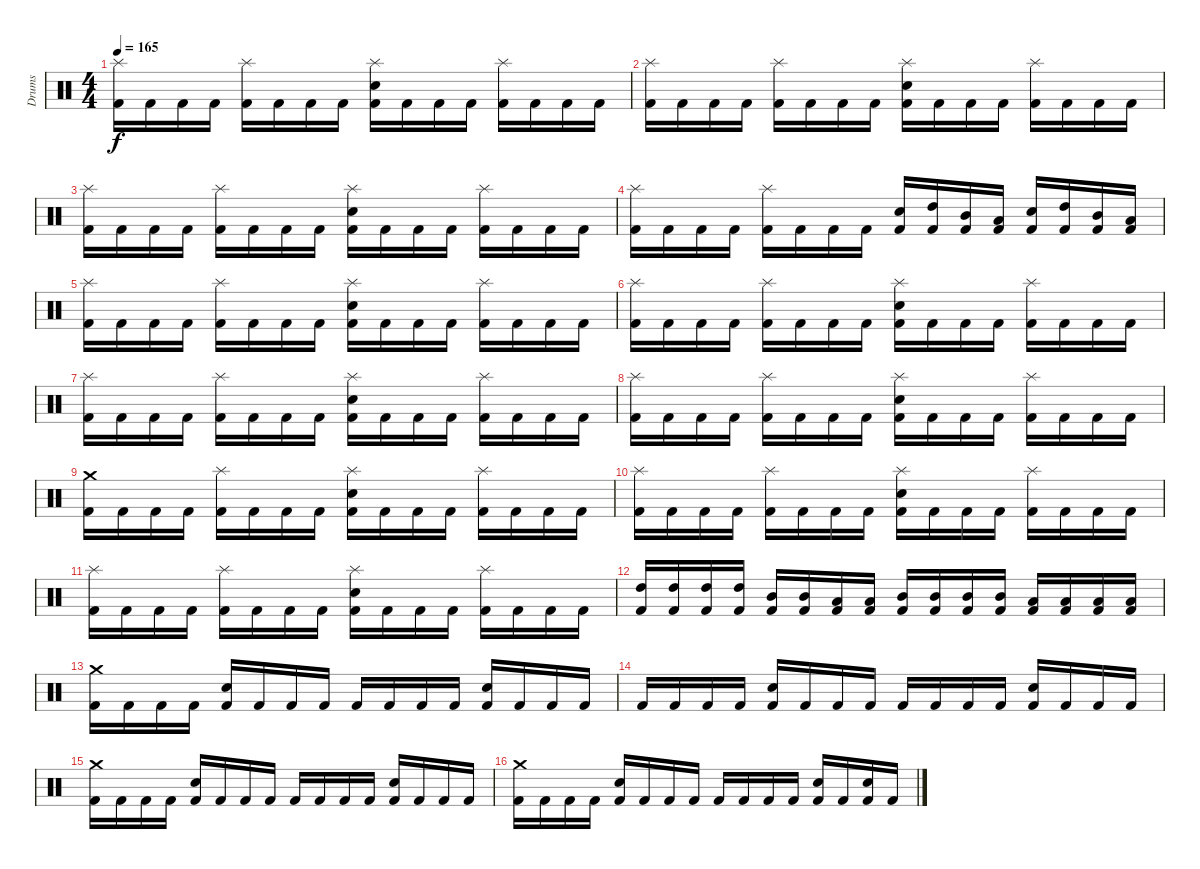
\track ("Drums" "Drums") {instrument percussion}
\staff {score}
\articulation defaults
\ts (4 4)
\tempo 165
\clef neutral
\ks c
("Splash (hit)" "Kick (hit) 2").16{dy f} "Kick (hit) 2".16 "Kick (hit) 2".16 "Kick (hit) 2".16 ("Splash (hit)" "Kick (hit) 2").16 "Kick (hit) 2".16 "Kick (hit) 2".16 "Kick (hit) 2".16 ("Splash (hit)" "Snare (hit) 2" "Kick (hit) 2").16 "Kick (hit) 2".16 "Kick (hit) 2".16 "Kick (hit) 2".16 ("Splash (hit)" "Kick (hit) 2").16 "Kick (hit) 2".16 "Kick (hit) 2".16 "Kick (hit) 2".16 |
("Splash (hit)" "Kick (hit) 2").16 "Kick (hit) 2".16 "Kick (hit) 2".16 "Kick (hit) 2".16 ("Splash (hit)" "Kick (hit) 2").16 "Kick (hit) 2".16 "Kick (hit) 2".16 "Kick (hit) 2".16 ("Splash (hit)" "Snare (hit) 2" "Kick (hit) 2").16 "Kick (hit) 2".16 "Kick (hit) 2".16 "Kick (hit) 2".16 ("Splash (hit)" "Kick (hit) 2").16 "Kick (hit) 2".16 "Kick (hit) 2".16 "Kick (hit) 2".16 |
("Splash (hit)" "Kick (hit) 2").16 "Kick (hit) 2".16 "Kick (hit) 2".16 "Kick (hit) 2".16 ("Splash (hit)" "Kick (hit) 2").16 "Kick (hit) 2".16 "Kick (hit) 2".16 "Kick (hit) 2".16 ("Splash (hit)" "Snare (hit) 2" "Kick (hit) 2").16 "Kick (hit) 2".16 "Kick (hit) 2".16 "Kick (hit) 2".16 ("Splash (hit)" "Kick (hit) 2").16 "Kick (hit) 2".16 "Kick (hit) 2".16 "Kick (hit) 2".16 |
("Splash (hit)" "Kick (hit) 2").16 "Kick (hit) 2".16 "Kick (hit) 2".16 "Kick (hit) 2".16 ("Splash (hit)" "Kick (hit) 2").16 "Kick (hit) 2".16 "Kick (hit) 2".16 "Kick (hit) 2".16 ("Snare (hit) 2" "Kick (hit) 2").16 ("High Tom (hit)" "Kick (hit) 2").16 ("Mid Tom (hit)" "Kick (hit) 2").16 ("Low Tom (hit)" "Kick (hit) 2").16 ("Snare (hit) 2" "Kick (hit) 2").16 ("High Tom (hit)" "Kick (hit) 2").16 ("Mid Tom (hit)" "Kick (hit) 2").16 ("Low Tom (hit)" "Kick (hit) 2").16 |
("Splash (hit)" "Kick (hit) 2").16 "Kick (hit) 2".16 "Kick (hit) 2".16 "Kick (hit) 2".16 ("Splash (hit)" "Kick (hit) 2").16 "Kick (hit) 2".16 "Kick (hit) 2".16 "Kick (hit) 2".16 ("Splash (hit)" "Snare (hit) 2" "Kick (hit) 2").16 "Kick (hit) 2".16 "Kick (hit) 2".16 "Kick (hit) 2".16 ("Splash (hit)" "Kick (hit) 2").16 "Kick (hit) 2".16 "Kick (hit) 2".16 "Kick (hit) 2".16 |
("Splash (hit)" "Kick (hit) 2").16 "Kick (hit) 2".16 "Kick (hit) 2".16 "Kick (hit) 2".16 ("Splash (hit)" "Kick (hit) 2").16 "Kick (hit) 2".16 "Kick (hit) 2".16 "Kick (hit) 2".16 ("Splash (hit)" "Snare (hit) 2" "Kick (hit) 2").16 "Kick (hit) 2".16 "Kick (hit) 2".16 "Kick (hit) 2".16 ("Splash (hit)" "Kick (hit) 2").16 "Kick (hit) 2".16 "Kick (hit) 2".16 "Kick (hit) 2".16 |
("Splash (hit)" "Kick (hit) 2").16 "Kick (hit) 2".16 "Kick (hit) 2".16 "Kick (hit) 2".16 ("Splash (hit)" "Kick (hit) 2").16 "Kick (hit) 2".16 "Kick (hit) 2".16 "Kick (hit) 2".16 ("Splash (hit)" "Snare (hit) 2" "Kick (hit) 2").16 "Kick (hit) 2".16 "Kick (hit) 2".16 "Kick (hit) 2".16 ("Splash (hit)" "Kick (hit) 2").16 "Kick (hit) 2".16 "Kick (hit) 2".16 "Kick (hit) 2".16 |
("Splash (hit)" "Kick (hit) 2").16 "Kick (hit) 2".16 "Kick (hit) 2".16 "Kick (hit) 2".16 ("Splash (hit)" "Kick (hit) 2").16 "Kick (hit) 2".16 "Kick (hit) 2".16 "Kick (hit) 2".16 ("Splash (hit)" "Snare (hit) 2" "Kick (hit) 2").16 "Kick (hit) 2".16 "Kick (hit) 2".16 "Kick (hit) 2".16 ("Splash (hit)" "Kick (hit) 2").16 "Kick (hit) 2".16 "Kick (hit) 2".16 "Kick (hit) 2".16 |
("Crash medium (hit)" "Kick (hit) 2").16 "Kick (hit) 2".16 "Kick (hit) 2".16 "Kick (hit) 2".16 ("Splash (hit)" "Kick (hit) 2").16 "Kick (hit) 2".16 "Kick (hit) 2".16 "Kick (hit) 2".16 ("Splash (hit)" "Snare (hit) 2" "Kick (hit) 2").16 "Kick (hit) 2".16 "Kick (hit) 2".16 "Kick (hit) 2".16 ("Splash (hit)" "Kick (hit) 2").16 "Kick (hit) 2".16 "Kick (hit) 2".16 "Kick (hit) 2".16 |
("Splash (hit)" "Kick (hit) 2").16 "Kick (hit) 2".16 "Kick (hit) 2".16 "Kick (hit) 2".16 ("Splash (hit)" "Kick (hit) 2").16 "Kick (hit) 2".16 "Kick (hit) 2".16 "Kick (hit) 2".16 ("Splash (hit)" "Snare (hit) 2" "Kick (hit) 2").16 "Kick (hit) 2".16 "Kick (hit) 2".16 "Kick (hit) 2".16 ("Splash (hit)" "Kick (hit) 2").16 "Kick (hit) 2".16 "Kick (hit) 2".16 "Kick (hit) 2".16 |
("Splash (hit)" "Kick (hit) 2").16 "Kick (hit) 2".16 "Kick (hit) 2".16 "Kick (hit) 2".16 ("Splash (hit)" "Kick (hit) 2").16 "Kick (hit) 2".16 "Kick (hit) 2".16 "Kick (hit) 2".16 ("Splash (hit)" "Snare (hit) 2" "Kick (hit) 2").16 "Kick (hit) 2".16 "Kick (hit) 2".16 "Kick (hit) 2".16 ("Splash (hit)" "Kick (hit) 2").16 "Kick (hit) 2".16 "Kick (hit) 2".16 "Kick (hit) 2".16 |
("High Tom (hit)" "Kick (hit) 2").16 ("High Tom (hit)" "Kick (hit) 2").16 ("High Tom (hit)" "Kick (hit) 2").16 ("High Tom (hit)" "Kick (hit) 2").16 ("Mid Tom (hit)" "Kick (hit) 2").16 ("Mid Tom (hit)" "Kick (hit) 2").16 ("Low Tom (hit)" "Kick (hit) 2").16 ("Low Tom (hit)" "Kick (hit) 2").16 ("Mid Tom (hit)" "Kick (hit) 2").16 ("Mid Tom (hit)" "Kick (hit) 2").16 ("Mid Tom (hit)" "Kick (hit) 2").16 ("Mid Tom (hit)" "Kick (hit) 2").16 ("Low Tom (hit)" "Kick (hit) 2").16 ("Low Tom (hit)" "Kick (hit) 2").16 ("Low Tom (hit)" "Kick (hit) 2").16 ("Low Tom (hit)" "Kick (hit) 2").16 |
("Crash medium (hit)" "Kick (hit) 2").16 "Kick (hit) 2".16 "Kick (hit) 2".16 "Kick (hit) 2".16 ("Snare (hit) 2" "Kick (hit) 2").16 "Kick (hit) 2".16 "Kick (hit) 2".16 "Kick (hit) 2".16 "Kick (hit) 2".16 "Kick (hit) 2".16 "Kick (hit) 2".16 "Kick (hit) 2".16 ("Snare (hit) 2" "Kick (hit) 2").16 "Kick (hit) 2".16 "Kick (hit) 2".16 "Kick (hit) 2".16 |
"Kick (hit) 2".16 "Kick (hit) 2".16 "Kick (hit) 2".16 "Kick (hit) 2".16 ("Snare (hit) 2" "Kick (hit) 2").16 "Kick (hit) 2".16 "Kick (hit) 2".16 "Kick (hit) 2".16 "Kick (hit) 2".16 "Kick (hit) 2".16 "Kick (hit) 2".16 "Kick (hit) 2".16 ("Snare (hit) 2" "Kick (hit) 2").16 "Kick (hit) 2".16 "Kick (hit) 2".16 "Kick (hit) 2".16 |
("Crash medium (hit)" "Kick (hit) 2").16 "Kick (hit) 2".16 "Kick (hit) 2".16 "Kick (hit) 2".16 ("Snare (hit) 2" "Kick (hit) 2").16 "Kick (hit) 2".16 "Kick (hit) 2".16 "Kick (hit) 2".16 "Kick (hit) 2".16 "Kick (hit) 2".16 "Kick (hit) 2".16 "Kick (hit) 2".16 ("Snare (hit) 2" "Kick (hit) 2").16 "Kick (hit) 2".16 "Kick (hit) 2".16 "Kick (hit) 2".16 |
("Crash medium (hit)" "Kick (hit) 2").16 "Kick (hit) 2".16 "Kick (hit) 2".16 "Kick (hit) 2".16 ("Snare (hit) 2" "Kick (hit) 2").16 "Kick (hit) 2".16 "Kick (hit) 2".16 "Kick (hit) 2".16 "Kick (hit) 2".16 "Kick (hit) 2".16 "Kick (hit) 2".16 "Kick (hit) 2".16 ("Snare (hit) 2" "Kick (hit) 2").16 "Kick (hit) 2".16 ("Snare (hit) 2" "Kick (hit) 2").16 "Kick (hit) 2".16
